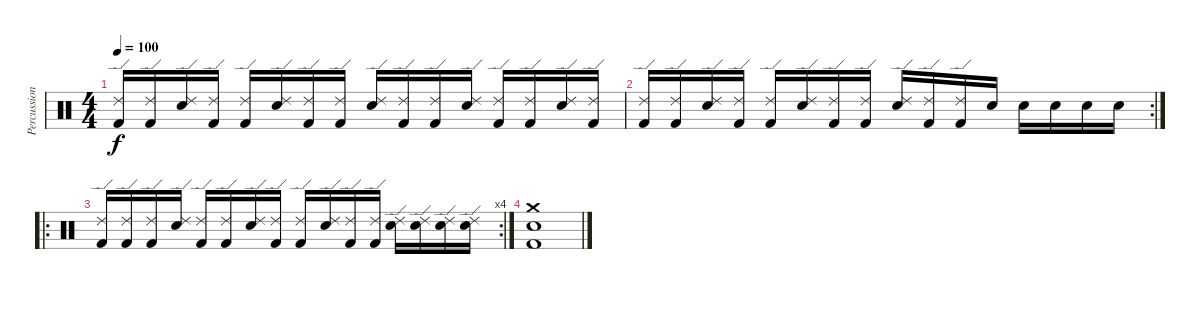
\track ("Percussion" "Percussion") {instrument percussion}
\staff {score}
\articulation defaults
\ts (4 4)
\tempo 100
\clef neutral
\ks c
("Kick (hit) 2" "Ride (edge) 2").16{dy f} ("Kick (hit) 2" "Ride (edge) 2").16 ("Snare (hit) 2" "Ride (edge) 2").16 ("Kick (hit) 2" "Ride (edge) 2").16 ("Kick (hit) 2" "Ride (edge) 2").16 ("Snare (hit) 2" "Ride (edge) 2").16 ("Kick (hit) 2" "Ride (edge) 2").16 ("Kick (hit) 2" "Ride (edge) 2").16 ("Snare (hit) 2" "Ride (edge) 2").16 ("Kick (hit) 2" "Ride (edge) 2").16 ("Kick (hit) 2" "Ride (edge) 2").16 ("Snare (hit) 2" "Ride (edge) 2").16 ("Kick (hit) 2" "Ride (edge) 2").16 ("Kick (hit) 2" "Ride (edge) 2").16 ("Snare (hit) 2" "Ride (edge) 2").16 ("Kick (hit) 2" "Ride (edge) 2").16 |
\rc 2
("Kick (hit) 2" "Ride (edge) 2").16 ("Kick (hit) 2" "Ride (edge) 2").16 ("Snare (hit) 2" "Ride (edge) 2").16 ("Kick (hit) 2" "Ride (edge) 2").16 ("Kick (hit) 2" "Ride (edge) 2").16 ("Snare (hit) 2" "Ride (edge) 2").16 ("Kick (hit) 2" "Ride (edge) 2").16 ("Kick (hit) 2" "Ride (edge) 2").16 ("Snare (hit) 2" "Ride (edge) 2").16 ("Kick (hit) 2" "Ride (edge) 2").16 ("Kick (hit) 2" "Ride (edge) 2").16 "Snare (hit) 2".16 "Snare (hit) 2".16 "Snare (hit) 2".16 "Snare (hit) 2".16 "Snare (hit) 2".16 |
\ro
\rc 4
("Kick (hit) 2" "Ride (edge) 2").16 ("Kick (hit) 2" "Ride (edge) 2").16 ("Kick (hit) 2" "Ride (edge) 2").16 ("Snare (hit) 2" "Ride (edge) 2").16 ("Kick (hit) 2" "Ride (edge) 2").16 ("Kick (hit) 2" "Ride (edge) 2").16 ("Snare (hit) 2" "Ride (edge) 2").16 ("Kick (hit) 2" "Ride (edge) 2").16 ("Kick (hit) 2" "Ride (edge) 2").16 ("Snare (hit) 2" "Ride (edge) 2").16 ("Kick (hit) 2" "Ride (edge) 2").16 ("Kick (hit) 2" "Ride (edge) 2").16 ("Snare (hit) 2" "Ride (edge) 2").16 ("Snare (hit) 2" "Ride (edge) 2").16 ("Snare (hit) 2" "Ride (edge) 2").16 ("Snare (hit) 2" "Ride (edge) 2").16 |
("Kick (hit) 2" "Snare (hit) 2" "Crash medium (hit)").1
